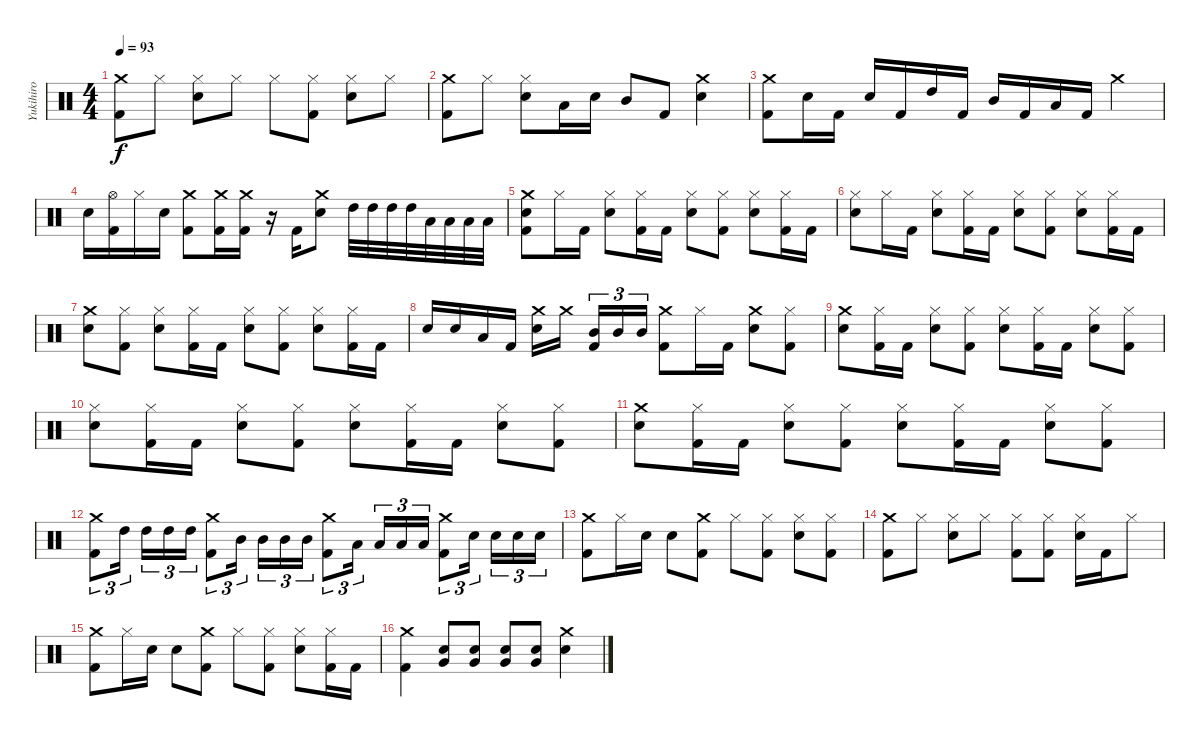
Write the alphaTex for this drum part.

\track ("Yukihiro" "Yukihiro") {instrument percussion}
\staff {score}
\articulation defaults
\ts (4 4)
\tempo 93
\clef neutral
\ks c
("Crash medium (hit)" "Kick (hit) 2").8{dy f} "Hi-Hat (closed)".8 ("Hi-Hat (closed)" "Snare (hit) 2").8 "Hi-Hat (closed)".8 "Hi-Hat (closed)".8 ("Hi-Hat (closed)" "Kick (hit) 2").8 ("Hi-Hat (closed)" "Snare (hit) 2").8 "Hi-Hat (closed)".8 |
("Crash medium (hit)" "Kick (hit) 2").8 "Hi-Hat (closed)".8 ("Hi-Hat (closed)" "Snare (hit) 2").8 "Low Tom (hit)".16 "Snare (hit) 2".16 "Mid Tom (hit)".8 "Kick (hit) 2".8 ("Crash medium (hit)" "Snare (hit) 2").4 |
("Crash medium (hit)" "Kick (hit) 2").8 "Snare (hit) 2".16 "Kick (hit) 2".16 "Snare (hit) 2".16 "Kick (hit) 2".16 "High Tom (hit)".16 "Kick (hit) 2".16 "Mid Tom (hit)".16 "Kick (hit) 2".16 "Low Tom (hit)".16 "Kick (hit) 2".16 "Crash medium (hit)".4 |
"Snare (hit) 2".16 ("Hi-Hat (open)" "Kick (hit) 2").16 "Hi-Hat (closed)".16 "Snare (hit) 2".16 ("Crash medium (hit)" "Kick (hit) 2").8 ("Crash medium (hit)" "Kick (hit) 2").16 ("Crash medium (hit)" "Kick (hit) 2").16 r.16 "Kick (hit) 2".16 ("Crash medium (hit)" "Snare (hit) 2").8 "High Tom (hit)".32 "High Tom (hit)".32 "High Tom (hit)".32 "High Tom (hit)".32 "Low Tom (hit)".32 "Low Tom (hit)".32 "Low Tom (hit)".32 "Low Tom (hit)".32 |
("Crash medium (hit)" "Snare (hit) 2" "Kick (hit) 2").8 "Hi-Hat (closed)".16 "Kick (hit) 2".16 ("Hi-Hat (closed)" "Snare (hit) 2").8 ("Hi-Hat (closed)" "Kick (hit) 2").16 "Kick (hit) 2".16 ("Hi-Hat (closed)" "Snare (hit) 2").8 ("Hi-Hat (closed)" "Kick (hit) 2").8 ("Hi-Hat (closed)" "Snare (hit) 2").8 ("Hi-Hat (closed)" "Kick (hit) 2").16 "Kick (hit) 2".16 |
("Hi-Hat (closed)" "Snare (hit) 2").8 "Hi-Hat (closed)".16 "Kick (hit) 2".16 ("Hi-Hat (closed)" "Snare (hit) 2").8 ("Hi-Hat (closed)" "Kick (hit) 2").16 "Kick (hit) 2".16 ("Hi-Hat (closed)" "Snare (hit) 2").8 ("Hi-Hat (closed)" "Kick (hit) 2").8 ("Hi-Hat (closed)" "Snare (hit) 2").8 ("Hi-Hat (closed)" "Kick (hit) 2").16 "Kick (hit) 2".16 |
("Crash medium (hit)" "Snare (hit) 2").8 ("Hi-Hat (closed)" "Kick (hit) 2").8 ("Hi-Hat (closed)" "Snare (hit) 2").8 ("Hi-Hat (closed)" "Kick (hit) 2").16 "Kick (hit) 2".16 ("Hi-Hat (closed)" "Snare (hit) 2").8 ("Hi-Hat (closed)" "Kick (hit) 2").8 ("Hi-Hat (closed)" "Snare (hit) 2").8 ("Hi-Hat (closed)" "Kick (hit) 2").16 "Kick (hit) 2".16 |
"Snare (hit) 2".16 "Snare (hit) 2".16 "Low Tom (hit)".16 "Kick (hit) 2".16 ("Crash medium (hit)" "Snare (hit) 2").16 "Crash medium (hit)".16 ("Mid Tom (hit)" "Kick (hit) 2").16{tu (3 2)} "Mid Tom (hit)".16{tu (3 2)} "Mid Tom (hit)".16{tu (3 2)} ("Crash medium (hit)" "Kick (hit) 2").8 "Hi-Hat (closed)".16 "Kick (hit) 2".16 ("Crash medium (hit)" "Snare (hit) 2").8 ("Hi-Hat (closed)" "Kick (hit) 2").8 |
("Crash medium (hit)" "Snare (hit) 2").8 ("Hi-Hat (closed)" "Kick (hit) 2").16 "Kick (hit) 2".16 ("Hi-Hat (closed)" "Snare (hit) 2").8 ("Hi-Hat (closed)" "Kick (hit) 2").8 ("Hi-Hat (closed)" "Snare (hit) 2").8 ("Hi-Hat (closed)" "Kick (hit) 2").16 "Kick (hit) 2".16 ("Hi-Hat (closed)" "Snare (hit) 2").8 ("Hi-Hat (closed)" "Kick (hit) 2").8 |
("Hi-Hat (closed)" "Snare (hit) 2").8 ("Hi-Hat (closed)" "Kick (hit) 2").16 "Kick (hit) 2".16 ("Hi-Hat (closed)" "Snare (hit) 2").8 ("Hi-Hat (closed)" "Kick (hit) 2").8 ("Hi-Hat (closed)" "Snare (hit) 2").8 ("Hi-Hat (closed)" "Kick (hit) 2").16 "Kick (hit) 2".16 ("Hi-Hat (closed)" "Snare (hit) 2").8 ("Hi-Hat (closed)" "Kick (hit) 2").8 |
("Crash medium (hit)" "Snare (hit) 2").8 ("Hi-Hat (closed)" "Kick (hit) 2").16 "Kick (hit) 2".16 ("Hi-Hat (closed)" "Snare (hit) 2").8 ("Hi-Hat (closed)" "Kick (hit) 2").8 ("Hi-Hat (closed)" "Snare (hit) 2").8 ("Hi-Hat (closed)" "Kick (hit) 2").16 "Kick (hit) 2".16 ("Hi-Hat (closed)" "Snare (hit) 2").8 ("Hi-Hat (closed)" "Kick (hit) 2").8 |
("Crash medium (hit)" "Kick (hit) 2").8{tu (3 2)} "High Tom (hit)".16{tu (3 2)} "High Tom (hit)".16{tu (3 2)} "High Tom (hit)".16{tu (3 2)} "High Tom (hit)".16{tu (3 2)} ("Crash medium (hit)" "Kick (hit) 2").8{tu (3 2)} "Mid Tom (hit)".16{tu (3 2)} "Mid Tom (hit)".16{tu (3 2)} "Mid Tom (hit)".16{tu (3 2)} "Mid Tom (hit)".16{tu (3 2)} ("Crash medium (hit)" "Kick (hit) 2").8{tu (3 2)} "Low Tom (hit)".16{tu (3 2)} "Low Tom (hit)".16{tu (3 2)} "Low Tom (hit)".16{tu (3 2)} "Low Tom (hit)".16{tu (3 2)} ("Crash medium (hit)" "Kick (hit) 2").8{tu (3 2)} "Snare (hit) 2".16{tu (3 2)} "Snare (hit) 2".16{tu (3 2)} "Snare (hit) 2".16{tu (3 2)} "Snare (hit) 2".16{tu (3 2)} |
("Crash medium (hit)" "Kick (hit) 2").8 "Hi-Hat (closed)".16 "Snare (hit) 2".16 "Snare (hit) 2".8 ("Crash medium (hit)" "Kick (hit) 2").8 "Hi-Hat (closed)".8 ("Hi-Hat (closed)" "Kick (hit) 2").8 ("Hi-Hat (closed)" "Snare (hit) 2").8 ("Hi-Hat (closed)" "Kick (hit) 2").8 |
("Crash medium (hit)" "Kick (hit) 2").8 "Hi-Hat (closed)".8 ("Hi-Hat (closed)" "Snare (hit) 2").8 "Hi-Hat (closed)".8 ("Hi-Hat (closed)" "Kick (hit) 2").8 ("Hi-Hat (closed)" "Kick (hit) 2").8 ("Hi-Hat (closed)" "Snare (hit) 2").16 "Kick (hit) 2".16 "Hi-Hat (closed)".8 |
("Crash medium (hit)" "Kick (hit) 2").8 "Hi-Hat (closed)".16 "Snare (hit) 2".16 "Snare (hit) 2".8 ("Crash medium (hit)" "Kick (hit) 2").8 "Hi-Hat (closed)".8 ("Hi-Hat (closed)" "Kick (hit) 2").8 ("Hi-Hat (closed)" "Snare (hit) 2").8 ("Hi-Hat (closed)" "Kick (hit) 2").16 "Kick (hit) 2".16 |
("Crash medium (hit)" "Kick (hit) 2").4 ("Snare (hit) 2" "Very Low Tom (hit)").8 ("Snare (hit) 2" "Very Low Tom (hit)").8 ("Snare (hit) 2" "Very Low Tom (hit)").8 ("Snare (hit) 2" "Very Low Tom (hit)").8 ("Crash medium (hit)" "Snare (hit) 2").4
